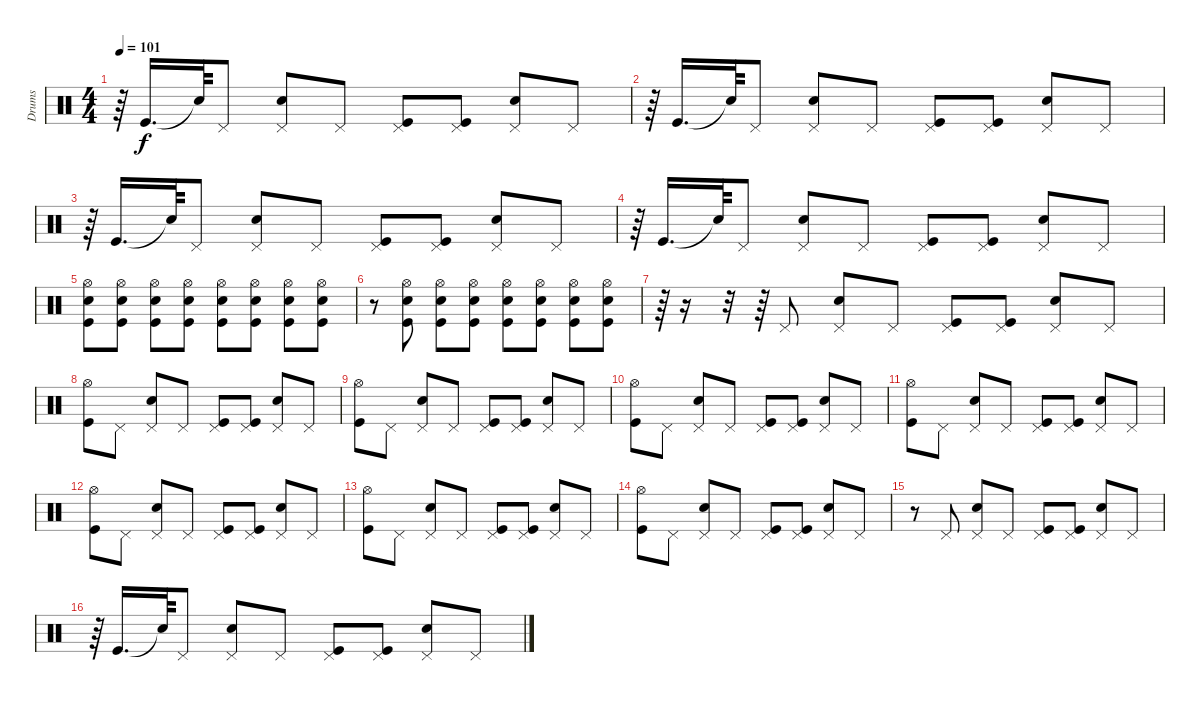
\track ("Drums" "Drums") {instrument percussion}
\staff {score}
\articulation defaults
\ts (4 4)
\tempo 101
\clef neutral
\ks c
r.64{dy f} "Kick (hit)".16{d} "Snare (hit)"{t}.64 "Pedal Hi-Hat (hit)".8 ("Electric Snare (hit)" "Pedal Hi-Hat (hit)").8 "Pedal Hi-Hat (hit)".8 ("Kick (hit)" "Pedal Hi-Hat (hit)").8 ("Kick (hit)" "Pedal Hi-Hat (hit)").8 ("Electric Snare (hit)" "Pedal Hi-Hat (hit)").8 "Pedal Hi-Hat (hit)".8 |
r.64 "Kick (hit)".16{d} "Snare (hit)"{t}.64 "Pedal Hi-Hat (hit)".8 ("Electric Snare (hit)" "Pedal Hi-Hat (hit)").8 "Pedal Hi-Hat (hit)".8 ("Kick (hit)" "Pedal Hi-Hat (hit)").8 ("Kick (hit)" "Pedal Hi-Hat (hit)").8 ("Electric Snare (hit)" "Pedal Hi-Hat (hit)").8 "Pedal Hi-Hat (hit)".8 |
r.64 "Kick (hit)".16{d} "Snare (hit)"{t}.64 "Pedal Hi-Hat (hit)".8 ("Electric Snare (hit)" "Pedal Hi-Hat (hit)").8 "Pedal Hi-Hat (hit)".8 ("Kick (hit)" "Pedal Hi-Hat (hit)").8 ("Kick (hit)" "Pedal Hi-Hat (hit)").8 ("Electric Snare (hit)" "Pedal Hi-Hat (hit)").8 "Pedal Hi-Hat (hit)".8 |
r.64 "Kick (hit)".16{d} "Snare (hit)"{t}.64 "Pedal Hi-Hat (hit)".8 ("Electric Snare (hit)" "Pedal Hi-Hat (hit)").8 "Pedal Hi-Hat (hit)".8 ("Kick (hit)" "Pedal Hi-Hat (hit)").8 ("Kick (hit)" "Pedal Hi-Hat (hit)").8 ("Electric Snare (hit)" "Pedal Hi-Hat (hit)").8 "Pedal Hi-Hat (hit)".8 |
("Kick (hit)" "Electric Snare (hit)" "Hi-Hat (open)").8 ("Kick (hit)" "Electric Snare (hit)" "Hi-Hat (open)").8 ("Kick (hit)" "Electric Snare (hit)" "Hi-Hat (open)").8 ("Kick (hit)" "Electric Snare (hit)" "Hi-Hat (open)").8 ("Kick (hit)" "Electric Snare (hit)" "Hi-Hat (open)").8 ("Kick (hit)" "Electric Snare (hit)" "Hi-Hat (open)").8 ("Kick (hit)" "Electric Snare (hit)" "Hi-Hat (open)").8 ("Kick (hit)" "Electric Snare (hit)" "Hi-Hat (open)").8 |
r.8 ("Kick (hit)" "Electric Snare (hit)" "Hi-Hat (open)").8 ("Kick (hit)" "Electric Snare (hit)" "Hi-Hat (open)").8 ("Kick (hit)" "Electric Snare (hit)" "Hi-Hat (open)").8 ("Kick (hit)" "Electric Snare (hit)" "Hi-Hat (open)").8 ("Kick (hit)" "Electric Snare (hit)" "Hi-Hat (open)").8 ("Kick (hit)" "Electric Snare (hit)" "Hi-Hat (open)").8 ("Kick (hit)" "Electric Snare (hit)" "Hi-Hat (open)").8 |
r.64 r.16 r.32 r.64 "Pedal Hi-Hat (hit)".8 ("Electric Snare (hit)" "Pedal Hi-Hat (hit)").8 "Pedal Hi-Hat (hit)".8 ("Kick (hit)" "Pedal Hi-Hat (hit)").8 ("Kick (hit)" "Pedal Hi-Hat (hit)").8 ("Electric Snare (hit)" "Pedal Hi-Hat (hit)").8 "Pedal Hi-Hat (hit)".8 |
("Kick (hit)" "Hi-Hat (open)").8 "Pedal Hi-Hat (hit)".8 ("Electric Snare (hit)" "Pedal Hi-Hat (hit)").8 "Pedal Hi-Hat (hit)".8 ("Kick (hit)" "Pedal Hi-Hat (hit)").8 ("Kick (hit)" "Pedal Hi-Hat (hit)").8 ("Electric Snare (hit)" "Pedal Hi-Hat (hit)").8 "Pedal Hi-Hat (hit)".8 |
("Kick (hit)" "Hi-Hat (open)").8 "Pedal Hi-Hat (hit)".8 ("Electric Snare (hit)" "Pedal Hi-Hat (hit)").8 "Pedal Hi-Hat (hit)".8 ("Kick (hit)" "Pedal Hi-Hat (hit)").8 ("Kick (hit)" "Pedal Hi-Hat (hit)").8 ("Electric Snare (hit)" "Pedal Hi-Hat (hit)").8 "Pedal Hi-Hat (hit)".8 |
("Kick (hit)" "Hi-Hat (open)").8 "Pedal Hi-Hat (hit)".8 ("Electric Snare (hit)" "Pedal Hi-Hat (hit)").8 "Pedal Hi-Hat (hit)".8 ("Kick (hit)" "Pedal Hi-Hat (hit)").8 ("Kick (hit)" "Pedal Hi-Hat (hit)").8 ("Electric Snare (hit)" "Pedal Hi-Hat (hit)").8 "Pedal Hi-Hat (hit)".8 |
("Kick (hit)" "Hi-Hat (open)").8 "Pedal Hi-Hat (hit)".8 ("Electric Snare (hit)" "Pedal Hi-Hat (hit)").8 "Pedal Hi-Hat (hit)".8 ("Kick (hit)" "Pedal Hi-Hat (hit)").8 ("Kick (hit)" "Pedal Hi-Hat (hit)").8 ("Electric Snare (hit)" "Pedal Hi-Hat (hit)").8 "Pedal Hi-Hat (hit)".8 |
("Kick (hit)" "Hi-Hat (open)").8 "Pedal Hi-Hat (hit)".8 ("Electric Snare (hit)" "Pedal Hi-Hat (hit)").8 "Pedal Hi-Hat (hit)".8 ("Kick (hit)" "Pedal Hi-Hat (hit)").8 ("Kick (hit)" "Pedal Hi-Hat (hit)").8 ("Electric Snare (hit)" "Pedal Hi-Hat (hit)").8 "Pedal Hi-Hat (hit)".8 |
("Kick (hit)" "Hi-Hat (open)").8 "Pedal Hi-Hat (hit)".8 ("Electric Snare (hit)" "Pedal Hi-Hat (hit)").8 "Pedal Hi-Hat (hit)".8 ("Kick (hit)" "Pedal Hi-Hat (hit)").8 ("Kick (hit)" "Pedal Hi-Hat (hit)").8 ("Electric Snare (hit)" "Pedal Hi-Hat (hit)").8 "Pedal Hi-Hat (hit)".8 |
("Kick (hit)" "Hi-Hat (open)").8 "Pedal Hi-Hat (hit)".8 ("Electric Snare (hit)" "Pedal Hi-Hat (hit)").8 "Pedal Hi-Hat (hit)".8 ("Kick (hit)" "Pedal Hi-Hat (hit)").8 ("Kick (hit)" "Pedal Hi-Hat (hit)").8 ("Electric Snare (hit)" "Pedal Hi-Hat (hit)").8 "Pedal Hi-Hat (hit)".8 |
r.8 "Pedal Hi-Hat (hit)".8 ("Electric Snare (hit)" "Pedal Hi-Hat (hit)").8 "Pedal Hi-Hat (hit)".8 ("Kick (hit)" "Pedal Hi-Hat (hit)").8 ("Kick (hit)" "Pedal Hi-Hat (hit)").8 ("Electric Snare (hit)" "Pedal Hi-Hat (hit)").8 "Pedal Hi-Hat (hit)".8 |
r.64 "Kick (hit)".16{d} "Snare (hit)"{t}.64 "Pedal Hi-Hat (hit)".8 ("Electric Snare (hit)" "Pedal Hi-Hat (hit)").8 "Pedal Hi-Hat (hit)".8 ("Kick (hit)" "Pedal Hi-Hat (hit)").8 ("Kick (hit)" "Pedal Hi-Hat (hit)").8 ("Electric Snare (hit)" "Pedal Hi-Hat (hit)").8 "Pedal Hi-Hat (hit)".8
